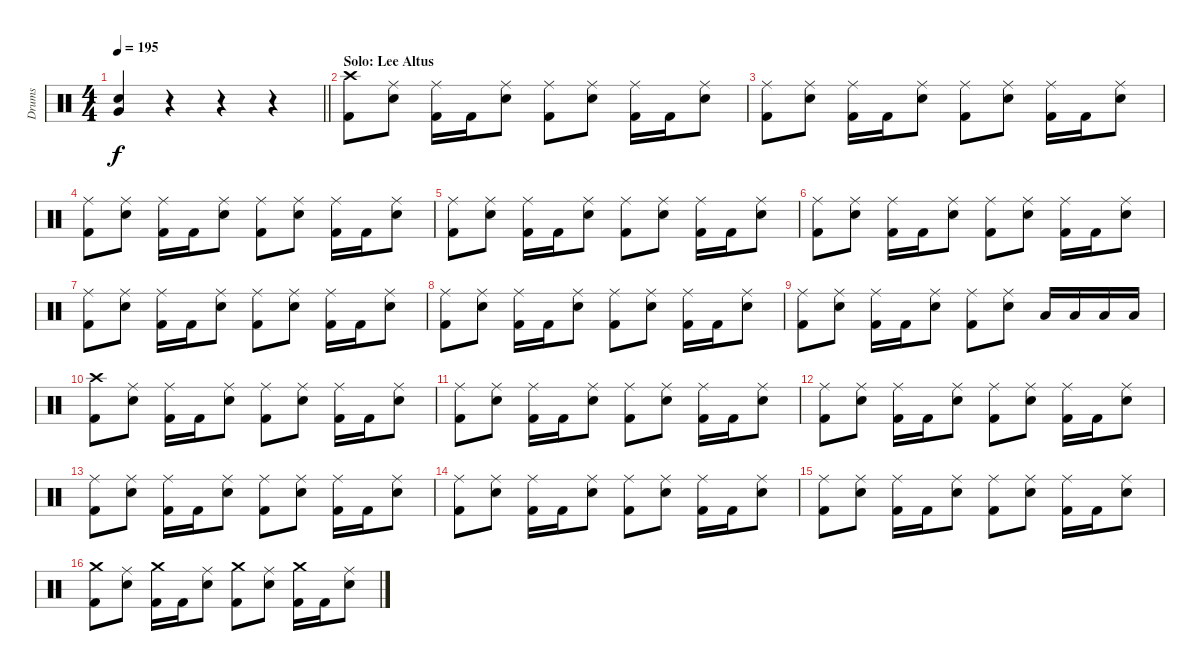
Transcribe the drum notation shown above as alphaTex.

\track ("Drums" "Drums") {instrument percussion}
\staff {score}
\articulation defaults
\ts (4 4)
\tempo 195
\clef neutral
\barLineRight lightlight
\ks c
("Very Low Tom (hit)" "Electric Snare (hit)").4{dy f} r.4 r.4 r.4 |
\section ("" "Solo: Lee Altus")
("Crash high (hit)" "Kick (hit) 2").8 ("Ride (middle)" "Electric Snare (hit)").8 ("Ride (middle)" "Kick (hit) 2").16 "Kick (hit) 2".16 ("Ride (middle)" "Electric Snare (hit)").8 ("Ride (middle)" "Kick (hit) 2").8 ("Ride (middle)" "Electric Snare (hit)").8 ("Ride (middle)" "Kick (hit) 2").16 "Kick (hit) 2".16 ("Ride (middle)" "Electric Snare (hit)").8 |
("Ride (middle)" "Kick (hit) 2").8 ("Ride (middle)" "Electric Snare (hit)").8 ("Ride (middle)" "Kick (hit) 2").16 "Kick (hit) 2".16 ("Ride (middle)" "Electric Snare (hit)").8 ("Ride (middle)" "Kick (hit) 2").8 ("Ride (middle)" "Electric Snare (hit)").8 ("Ride (middle)" "Kick (hit) 2").16 "Kick (hit) 2".16 ("Ride (middle)" "Electric Snare (hit)").8 |
("Ride (middle)" "Kick (hit) 2").8 ("Ride (middle)" "Electric Snare (hit)").8 ("Ride (middle)" "Kick (hit) 2").16 "Kick (hit) 2".16 ("Ride (middle)" "Electric Snare (hit)").8 ("Ride (middle)" "Kick (hit) 2").8 ("Ride (middle)" "Electric Snare (hit)").8 ("Ride (middle)" "Kick (hit) 2").16 "Kick (hit) 2".16 ("Ride (middle)" "Electric Snare (hit)").8 |
("Ride (middle)" "Kick (hit) 2").8 ("Ride (middle)" "Electric Snare (hit)").8 ("Ride (middle)" "Kick (hit) 2").16 "Kick (hit) 2".16 ("Ride (middle)" "Electric Snare (hit)").8 ("Ride (middle)" "Kick (hit) 2").8 ("Ride (middle)" "Electric Snare (hit)").8 ("Ride (middle)" "Kick (hit) 2").16 "Kick (hit) 2".16 ("Ride (middle)" "Electric Snare (hit)").8 |
("Ride (middle)" "Kick (hit) 2").8 ("Ride (middle)" "Electric Snare (hit)").8 ("Ride (middle)" "Kick (hit) 2").16 "Kick (hit) 2".16 ("Ride (middle)" "Electric Snare (hit)").8 ("Ride (middle)" "Kick (hit) 2").8 ("Ride (middle)" "Electric Snare (hit)").8 ("Ride (middle)" "Kick (hit) 2").16 "Kick (hit) 2".16 ("Ride (middle)" "Electric Snare (hit)").8 |
("Ride (middle)" "Kick (hit) 2").8 ("Ride (middle)" "Electric Snare (hit)").8 ("Ride (middle)" "Kick (hit) 2").16 "Kick (hit) 2".16 ("Ride (middle)" "Electric Snare (hit)").8 ("Ride (middle)" "Kick (hit) 2").8 ("Ride (middle)" "Electric Snare (hit)").8 ("Ride (middle)" "Kick (hit) 2").16 "Kick (hit) 2".16 ("Ride (middle)" "Electric Snare (hit)").8 |
("Ride (middle)" "Kick (hit) 2").8 ("Ride (middle)" "Electric Snare (hit)").8 ("Ride (middle)" "Kick (hit) 2").16 "Kick (hit) 2".16 ("Ride (middle)" "Electric Snare (hit)").8 ("Ride (middle)" "Kick (hit) 2").8 ("Ride (middle)" "Electric Snare (hit)").8 ("Ride (middle)" "Kick (hit) 2").16 "Kick (hit) 2".16 ("Ride (middle)" "Electric Snare (hit)").8 |
("Ride (middle)" "Kick (hit) 2").8 ("Ride (middle)" "Electric Snare (hit)").8 ("Ride (middle)" "Kick (hit) 2").16 "Kick (hit) 2".16 ("Ride (middle)" "Electric Snare (hit)").8 ("Ride (middle)" "Kick (hit) 2").8 ("Ride (middle)" "Electric Snare (hit)").8 "Low Tom (hit)".16 "Low Tom (hit)".16 "Low Tom (hit)".16 "Low Tom (hit)".16 |
("Crash high (hit)" "Kick (hit) 2").8 ("Ride (middle)" "Electric Snare (hit)").8 ("Ride (middle)" "Kick (hit) 2").16 "Kick (hit) 2".16 ("Ride (middle)" "Electric Snare (hit)").8 ("Ride (middle)" "Kick (hit) 2").8 ("Ride (middle)" "Electric Snare (hit)").8 ("Ride (middle)" "Kick (hit) 2").16 "Kick (hit) 2".16 ("Ride (middle)" "Electric Snare (hit)").8 |
("Ride (middle)" "Kick (hit) 2").8 ("Ride (middle)" "Electric Snare (hit)").8 ("Ride (middle)" "Kick (hit) 2").16 "Kick (hit) 2".16 ("Ride (middle)" "Electric Snare (hit)").8 ("Ride (middle)" "Kick (hit) 2").8 ("Ride (middle)" "Electric Snare (hit)").8 ("Ride (middle)" "Kick (hit) 2").16 "Kick (hit) 2".16 ("Ride (middle)" "Electric Snare (hit)").8 |
("Ride (middle)" "Kick (hit) 2").8 ("Ride (middle)" "Electric Snare (hit)").8 ("Ride (middle)" "Kick (hit) 2").16 "Kick (hit) 2".16 ("Ride (middle)" "Electric Snare (hit)").8 ("Ride (middle)" "Kick (hit) 2").8 ("Ride (middle)" "Electric Snare (hit)").8 ("Ride (middle)" "Kick (hit) 2").16 "Kick (hit) 2".16 ("Ride (middle)" "Electric Snare (hit)").8 |
("Ride (middle)" "Kick (hit) 2").8 ("Ride (middle)" "Electric Snare (hit)").8 ("Ride (middle)" "Kick (hit) 2").16 "Kick (hit) 2".16 ("Ride (middle)" "Electric Snare (hit)").8 ("Ride (middle)" "Kick (hit) 2").8 ("Ride (middle)" "Electric Snare (hit)").8 ("Ride (middle)" "Kick (hit) 2").16 "Kick (hit) 2".16 ("Ride (middle)" "Electric Snare (hit)").8 |
("Ride (middle)" "Kick (hit) 2").8 ("Ride (middle)" "Electric Snare (hit)").8 ("Ride (middle)" "Kick (hit) 2").16 "Kick (hit) 2".16 ("Ride (middle)" "Electric Snare (hit)").8 ("Ride (middle)" "Kick (hit) 2").8 ("Ride (middle)" "Electric Snare (hit)").8 ("Ride (middle)" "Kick (hit) 2").16 "Kick (hit) 2".16 ("Ride (middle)" "Electric Snare (hit)").8 |
("Ride (middle)" "Kick (hit) 2").8 ("Ride (middle)" "Electric Snare (hit)").8 ("Ride (middle)" "Kick (hit) 2").16 "Kick (hit) 2".16 ("Ride (middle)" "Electric Snare (hit)").8 ("Ride (middle)" "Kick (hit) 2").8 ("Ride (middle)" "Electric Snare (hit)").8 ("Ride (middle)" "Kick (hit) 2").16 "Kick (hit) 2".16 ("Ride (middle)" "Electric Snare (hit)").8 |
("Crash medium (hit)" "Kick (hit) 2").8 ("Ride (middle)" "Electric Snare (hit)").8 ("Crash medium (hit)" "Kick (hit) 2").16 "Kick (hit) 2".16 ("Ride (middle)" "Electric Snare (hit)").8 ("Crash medium (hit)" "Kick (hit) 2").8 ("Ride (middle)" "Electric Snare (hit)").8 ("Crash medium (hit)" "Kick (hit) 2").16 "Kick (hit) 2".16 ("Ride (middle)" "Electric Snare (hit)").8
